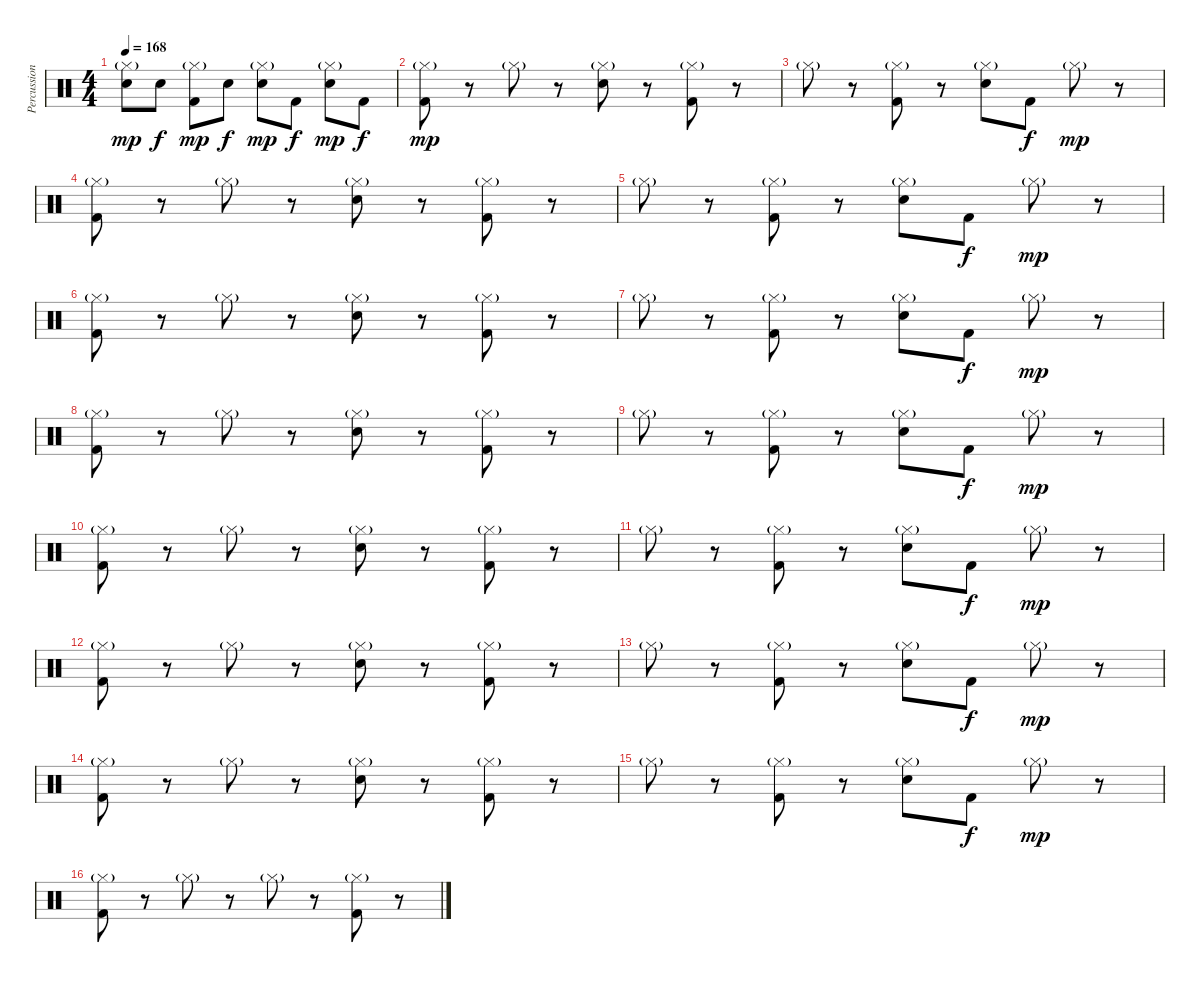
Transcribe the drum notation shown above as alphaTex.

\track ("Percussion" "Percussion") {instrument percussion}
\staff {score}
\articulation defaults
\ts (4 4)
\tempo 168
\clef neutral
\ks c
("Hi-Hat (closed)"{g} "Hand Clap (hit)").8{dy mp} "Hand Clap (hit)".8{dy f} ("Hi-Hat (closed)"{g} "Kick (hit) 2").8{dy mp} "Hand Clap (hit)".8{dy f} ("Hi-Hat (closed)"{g} "Hand Clap (hit)").8{dy mp} "Kick (hit) 2".8{dy f} ("Hi-Hat (closed)"{g} "Hand Clap (hit)").8{dy mp} "Kick (hit) 2".8{dy f} |
("Hi-Hat (closed)"{g} "Kick (hit) 2").8{dy mp} r.8 "Hi-Hat (closed)"{g}.8 r.8 ("Hi-Hat (closed)"{g} "Hand Clap (hit)").8 r.8 ("Hi-Hat (closed)"{g} "Kick (hit) 2").8 r.8 |
"Hi-Hat (closed)"{g}.8 r.8 ("Hi-Hat (closed)"{g} "Kick (hit) 2").8 r.8 ("Hi-Hat (closed)"{g} "Hand Clap (hit)").8 "Kick (hit) 2".8{dy f} "Hi-Hat (closed)"{g}.8{dy mp} r.8 |
("Hi-Hat (closed)"{g} "Kick (hit) 2").8 r.8 "Hi-Hat (closed)"{g}.8 r.8 ("Hi-Hat (closed)"{g} "Hand Clap (hit)").8 r.8 ("Hi-Hat (closed)"{g} "Kick (hit) 2").8 r.8 |
"Hi-Hat (closed)"{g}.8 r.8 ("Hi-Hat (closed)"{g} "Kick (hit) 2").8 r.8 ("Hi-Hat (closed)"{g} "Hand Clap (hit)").8 "Kick (hit) 2".8{dy f} "Hi-Hat (closed)"{g}.8{dy mp} r.8 |
("Hi-Hat (closed)"{g} "Kick (hit) 2").8 r.8 "Hi-Hat (closed)"{g}.8 r.8 ("Hi-Hat (closed)"{g} "Hand Clap (hit)").8 r.8 ("Hi-Hat (closed)"{g} "Kick (hit) 2").8 r.8 |
"Hi-Hat (closed)"{g}.8 r.8 ("Hi-Hat (closed)"{g} "Kick (hit) 2").8 r.8 ("Hi-Hat (closed)"{g} "Hand Clap (hit)").8 "Kick (hit) 2".8{dy f} "Hi-Hat (closed)"{g}.8{dy mp} r.8 |
("Hi-Hat (closed)"{g} "Kick (hit) 2").8 r.8 "Hi-Hat (closed)"{g}.8 r.8 ("Hi-Hat (closed)"{g} "Hand Clap (hit)").8 r.8 ("Hi-Hat (closed)"{g} "Kick (hit) 2").8 r.8 |
"Hi-Hat (closed)"{g}.8 r.8 ("Hi-Hat (closed)"{g} "Kick (hit) 2").8 r.8 ("Hi-Hat (closed)"{g} "Hand Clap (hit)").8 "Kick (hit) 2".8{dy f} "Hi-Hat (closed)"{g}.8{dy mp} r.8 |
("Hi-Hat (closed)"{g} "Kick (hit) 2").8 r.8 "Hi-Hat (closed)"{g}.8 r.8 ("Hi-Hat (closed)"{g} "Hand Clap (hit)").8 r.8 ("Hi-Hat (closed)"{g} "Kick (hit) 2").8 r.8 |
"Hi-Hat (closed)"{g}.8 r.8 ("Hi-Hat (closed)"{g} "Kick (hit) 2").8 r.8 ("Hi-Hat (closed)"{g} "Hand Clap (hit)").8 "Kick (hit) 2".8{dy f} "Hi-Hat (closed)"{g}.8{dy mp} r.8 |
("Hi-Hat (closed)"{g} "Kick (hit) 2").8 r.8 "Hi-Hat (closed)"{g}.8 r.8 ("Hi-Hat (closed)"{g} "Hand Clap (hit)").8 r.8 ("Hi-Hat (closed)"{g} "Kick (hit) 2").8 r.8 |
"Hi-Hat (closed)"{g}.8 r.8 ("Hi-Hat (closed)"{g} "Kick (hit) 2").8 r.8 ("Hi-Hat (closed)"{g} "Hand Clap (hit)").8 "Kick (hit) 2".8{dy f} "Hi-Hat (closed)"{g}.8{dy mp} r.8 |
("Hi-Hat (closed)"{g} "Kick (hit) 2").8 r.8 "Hi-Hat (closed)"{g}.8 r.8 ("Hi-Hat (closed)"{g} "Hand Clap (hit)").8 r.8 ("Hi-Hat (closed)"{g} "Kick (hit) 2").8 r.8 |
"Hi-Hat (closed)"{g}.8 r.8 ("Hi-Hat (closed)"{g} "Kick (hit) 2").8 r.8 ("Hi-Hat (closed)"{g} "Hand Clap (hit)").8 "Kick (hit) 2".8{dy f} "Hi-Hat (closed)"{g}.8{dy mp} r.8 |
("Hi-Hat (closed)"{g} "Kick (hit) 2").8 r.8 "Hi-Hat (closed)"{g}.8 r.8 "Hi-Hat (closed)"{g}.8 r.8 ("Hi-Hat (closed)"{g} "Kick (hit) 2").8 r.8
